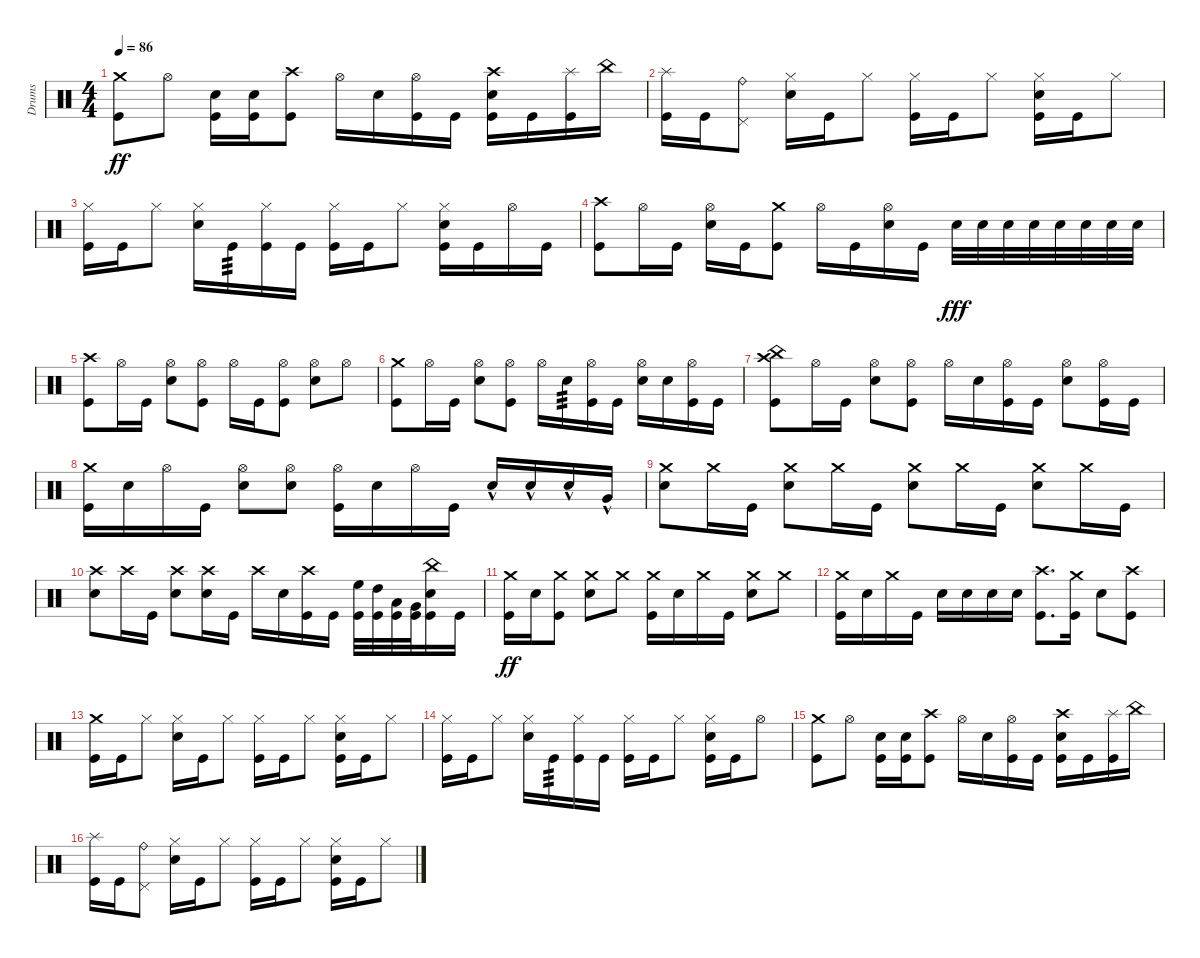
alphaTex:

\track ("Drums" "Drums") {instrument percussion}
\staff {score}
\articulation defaults
\ts (4 4)
\tempo 86
\clef neutral
\ks c
("Crash medium (hit)" "Kick (hit)").8{dy ff} "Hi-Hat (open)".8 ("Snare (hit) 2" "Kick (hit)").16 ("Snare (hit) 2" "Kick (hit)").16 ("Crash high (hit)" "Kick (hit)").8 "Hi-Hat (open)".16 "Snare (hit) 2".16 ("Hi-Hat (open)" "Kick (hit)").16 "Kick (hit)".16 ("Crash high (hit)" "Snare (hit) 2" "Kick (hit)").16 "Kick (hit)".16 ("Splash (hit)" "Kick (hit)").16 "China (hit)".16 |
("Splash (hit)" "Kick (hit)").16 "Kick (hit)".16 ("Ride (bell)" "Pedal Hi-Hat (hit)").8 ("Hi-Hat (closed)" "Snare (hit) 2").16 "Kick (hit)".16 "Hi-Hat (closed)".8 ("Hi-Hat (closed)" "Kick (hit)").16 "Kick (hit)".16 "Hi-Hat (closed)".8 ("Hi-Hat (closed)" "Snare (hit) 2" "Kick (hit)").16 "Kick (hit)".16 "Hi-Hat (closed)".8 |
("Hi-Hat (closed)" "Kick (hit)").16 "Kick (hit)".16 "Hi-Hat (closed)".8 ("Hi-Hat (closed)" "Snare (hit) 2").16 "Kick (hit)".16{tp 3} ("Hi-Hat (closed)" "Kick (hit)").16 "Kick (hit)".16 ("Hi-Hat (closed)" "Kick (hit)").16 "Kick (hit)".16 "Hi-Hat (closed)".8 ("Hi-Hat (closed)" "Snare (hit) 2" "Kick (hit)").16 "Kick (hit)".16 "Hi-Hat (open)".16 "Kick (hit)".16 |
("Crash high (hit)" "Kick (hit)").8 "Hi-Hat (open)".16 "Kick (hit)".16 ("Hi-Hat (open)" "Snare (hit) 2").16 "Kick (hit)".16 ("Crash medium (hit)" "Kick (hit)").8 "Hi-Hat (open)".16 "Kick (hit)".16 ("Hi-Hat (open)" "Snare (hit) 2").16 "Kick (hit)".16 "Snare (hit) 2".32{dy fff} "Snare (hit) 2".32 "Snare (hit) 2".32 "Snare (hit) 2".32 "Snare (hit) 2".32 "Snare (hit) 2".32 "Snare (hit) 2".32 "Snare (hit) 2".32 |
("Crash high (hit)" "Kick (hit)").8 "Hi-Hat (open)".16 "Kick (hit)".16 ("Hi-Hat (open)" "Snare (hit) 2").8 ("Hi-Hat (open)" "Kick (hit)").8 "Hi-Hat (open)".16 "Kick (hit)".16 ("Hi-Hat (open)" "Kick (hit)").8 ("Hi-Hat (open)" "Snare (hit) 2").8 "Hi-Hat (open)".8 |
("Crash medium (hit)" "Kick (hit)").8 "Hi-Hat (open)".16 "Kick (hit)".16 ("Hi-Hat (open)" "Snare (hit) 2").8 ("Hi-Hat (open)" "Kick (hit)").8 "Hi-Hat (open)".16 "Snare (hit) 2".16{tp 3} ("Hi-Hat (open)" "Kick (hit)").16 "Kick (hit)".16 ("Hi-Hat (open)" "Snare (hit) 2").16 "Snare (hit) 2".16 ("Hi-Hat (open)" "Kick (hit)").16 "Kick (hit)".16 |
("Crash high (hit)" "China (hit)" "Kick (hit)").8 "Hi-Hat (open)".16 "Kick (hit)".16 ("Hi-Hat (open)" "Snare (hit) 2").8 ("Hi-Hat (open)" "Kick (hit)").8 "Hi-Hat (open)".16 "Snare (hit) 2".16 ("Hi-Hat (open)" "Kick (hit)").16 "Kick (hit)".16 ("Hi-Hat (open)" "Snare (hit) 2").8 ("Hi-Hat (open)" "Kick (hit)").16 "Kick (hit)".16 |
("Crash medium (hit)" "Kick (hit)").16 "Snare (hit) 2".16 "Hi-Hat (open)".16 "Kick (hit)".16 ("Hi-Hat (open)" "Snare (hit) 2").8 ("Hi-Hat (open)" "Snare (hit) 2").8 ("Hi-Hat (open)" "Kick (hit)").16 "Snare (hit) 2".16 "Hi-Hat (open)".16 "Kick (hit)".16 "Snare (hit) 2"{hac}.16 "Snare (hit) 2"{hac}.16 "Snare (hit) 2"{hac}.16 "Very Low Tom (hit)"{hac}.16 |
("Crash medium (hit)" "Snare (hit) 2").8 "Crash medium (hit)".16 "Kick (hit)".16 ("Crash medium (hit)" "Snare (hit) 2").8 "Crash medium (hit)".16 "Kick (hit)".16 ("Crash medium (hit)" "Snare (hit) 2").8 "Crash medium (hit)".16 "Kick (hit)".16 ("Crash medium (hit)" "Snare (hit) 2").8 "Crash medium (hit)".16 "Kick (hit)".16 |
("Crash high (hit)" "Snare (hit) 2").8 "Crash high (hit)".16 "Kick (hit)".16 ("Crash high (hit)" "Snare (hit) 2").8 ("Crash high (hit)" "Snare (hit) 2").16 "Kick (hit)".16 "Crash high (hit)".16 "Snare (hit) 2".16 ("Crash high (hit)" "Kick (hit)").16 "Kick (hit)".16 ("High Floor Tom (hit)" "Kick (hit)").32 ("High Tom (hit)" "Kick (hit)").32 ("Low Tom (hit)" "Kick (hit)").32 ("Very Low Tom (hit)" "Kick (hit)").32 ("China (hit)" "Snare (hit) 2" "Kick (hit)").16 "Kick (hit)".16 |
("Crash medium (hit)" "Kick (hit)").16{dy ff} "Snare (hit) 2".16 ("Crash medium (hit)" "Kick (hit)").8 ("Crash medium (hit)" "Snare (hit) 2").8 "Crash medium (hit)".8 ("Crash medium (hit)" "Kick (hit)").16 "Snare (hit) 2".16 "Crash medium (hit)".16 "Kick (hit)".16 ("Crash medium (hit)" "Snare (hit) 2").8 "Crash medium (hit)".8 |
("Crash medium (hit)" "Kick (hit)").16 "Snare (hit) 2".16 "Crash medium (hit)".16 "Kick (hit)".16 "Snare (hit) 2".16 "Snare (hit) 2".16 "Snare (hit) 2".16 "Snare (hit) 2".16 ("Crash high (hit)" "Kick (hit)").8{d} ("Crash medium (hit)" "Kick (hit)").16 "Snare (hit) 2".8 ("Crash high (hit)" "Kick (hit)").8 |
("Crash medium (hit)" "Kick (hit)").16 "Kick (hit)".16 "Hi-Hat (closed)".8 ("Hi-Hat (closed)" "Snare (hit) 2").16 "Kick (hit)".16 "Hi-Hat (closed)".8 ("Hi-Hat (closed)" "Kick (hit)").16 "Kick (hit)".16 "Hi-Hat (closed)".8 ("Hi-Hat (closed)" "Snare (hit) 2" "Kick (hit)").16 "Kick (hit)".16 "Hi-Hat (closed)".8 |
("Hi-Hat (closed)" "Kick (hit)").16 "Kick (hit)".16 "Hi-Hat (closed)".8 ("Hi-Hat (closed)" "Snare (hit) 2").16 "Kick (hit)".16{tp 3} ("Hi-Hat (closed)" "Kick (hit)").16 "Kick (hit)".16 ("Hi-Hat (closed)" "Kick (hit)").16 "Kick (hit)".16 "Hi-Hat (closed)".8 ("Hi-Hat (closed)" "Snare (hit) 2" "Kick (hit)").16 "Kick (hit)".16 "Hi-Hat (open)".8 |
("Crash medium (hit)" "Kick (hit)").8 "Hi-Hat (open)".8 ("Snare (hit) 2" "Kick (hit)").16 ("Snare (hit) 2" "Kick (hit)").16 ("Crash high (hit)" "Kick (hit)").8 "Hi-Hat (open)".16 "Snare (hit) 2".16 ("Hi-Hat (open)" "Kick (hit)").16 "Kick (hit)".16 ("Crash high (hit)" "Snare (hit) 2" "Kick (hit)").16 "Kick (hit)".16 ("Splash (hit)" "Kick (hit)").16 "China (hit)".16 |
("Splash (hit)" "Kick (hit)").16 "Kick (hit)".16 ("Ride (bell)" "Pedal Hi-Hat (hit)").8 ("Hi-Hat (closed)" "Snare (hit) 2").16 "Kick (hit)".16 "Hi-Hat (closed)".8 ("Hi-Hat (closed)" "Kick (hit)").16 "Kick (hit)".16 "Hi-Hat (closed)".8 ("Hi-Hat (closed)" "Snare (hit) 2" "Kick (hit)").16 "Kick (hit)".16 "Hi-Hat (closed)".8
